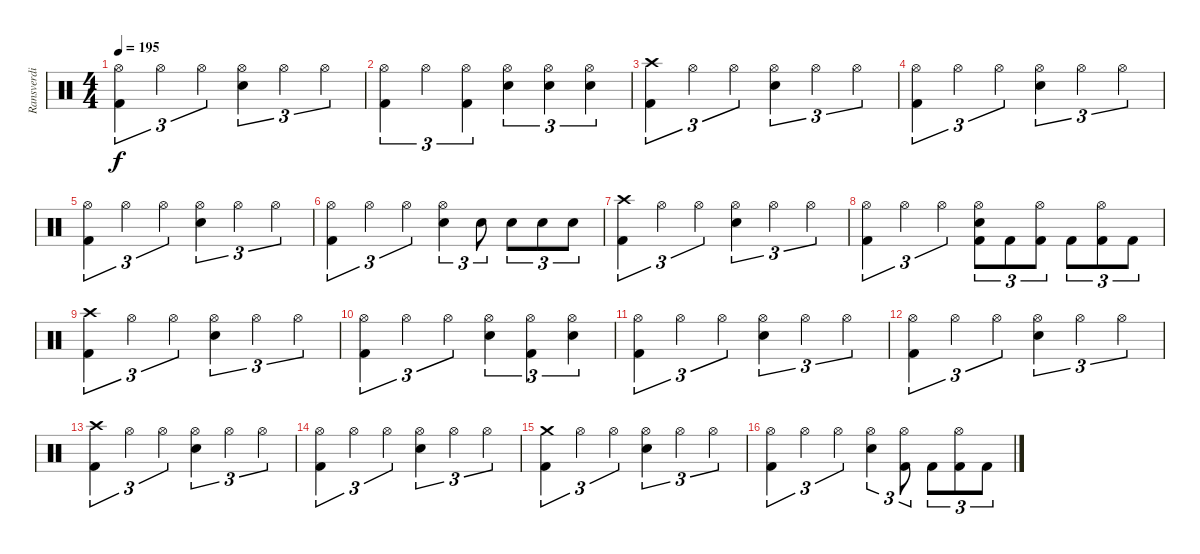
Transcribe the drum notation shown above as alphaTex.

\track ("Ransverdi" "Ransverdi") {instrument percussion}
\staff {score}
\articulation defaults
\ts (4 4)
\tempo 195
\clef neutral
\ks c
("Hi-Hat (open)" "Kick (hit) 2").4{tu (3 2) dy f} "Hi-Hat (open)".4{tu (3 2)} "Hi-Hat (open)".4{tu (3 2)} ("Hi-Hat (open)" "Snare (hit) 2").4{tu (3 2)} "Hi-Hat (open)".4{tu (3 2)} "Hi-Hat (open)".4{tu (3 2)} |
("Hi-Hat (open)" "Kick (hit) 2").4{tu (3 2)} "Hi-Hat (open)".4{tu (3 2)} ("Hi-Hat (open)" "Kick (hit) 2").4{tu (3 2)} ("Hi-Hat (open)" "Snare (hit) 2").4{tu (3 2)} ("Hi-Hat (open)" "Snare (hit) 2").4{tu (3 2)} ("Hi-Hat (open)" "Snare (hit) 2").4{tu (3 2)} |
("Crash high (hit)" "Kick (hit) 2").4{tu (3 2)} "Hi-Hat (open)".4{tu (3 2)} "Hi-Hat (open)".4{tu (3 2)} ("Hi-Hat (open)" "Snare (hit) 2").4{tu (3 2)} "Hi-Hat (open)".4{tu (3 2)} "Hi-Hat (open)".4{tu (3 2)} |
("Hi-Hat (open)" "Kick (hit) 2").4{tu (3 2)} "Hi-Hat (open)".4{tu (3 2)} "Hi-Hat (open)".4{tu (3 2)} ("Hi-Hat (open)" "Snare (hit) 2").4{tu (3 2)} "Hi-Hat (open)".4{tu (3 2)} "Hi-Hat (open)".4{tu (3 2)} |
("Hi-Hat (open)" "Kick (hit) 2").4{tu (3 2)} "Hi-Hat (open)".4{tu (3 2)} "Hi-Hat (open)".4{tu (3 2)} ("Hi-Hat (open)" "Snare (hit) 2").4{tu (3 2)} "Hi-Hat (open)".4{tu (3 2)} "Hi-Hat (open)".4{tu (3 2)} |
("Hi-Hat (open)" "Kick (hit) 2").4{tu (3 2)} "Hi-Hat (open)".4{tu (3 2)} "Hi-Hat (open)".4{tu (3 2)} ("Hi-Hat (open)" "Snare (hit) 2").4{tu (3 2)} "Snare (hit) 2".8{tu (3 2)} "Snare (hit) 2".8{tu (3 2)} "Snare (hit) 2".8{tu (3 2)} "Snare (hit) 2".8{tu (3 2)} |
("Crash high (hit)" "Kick (hit) 2").4{tu (3 2)} "Hi-Hat (open)".4{tu (3 2)} "Hi-Hat (open)".4{tu (3 2)} ("Hi-Hat (open)" "Snare (hit) 2").4{tu (3 2)} "Hi-Hat (open)".4{tu (3 2)} "Hi-Hat (open)".4{tu (3 2)} |
("Hi-Hat (open)" "Kick (hit) 2").4{tu (3 2)} "Hi-Hat (open)".4{tu (3 2)} "Hi-Hat (open)".4{tu (3 2)} ("Hi-Hat (open)" "Snare (hit) 2" "Kick (hit) 2").8{tu (3 2)} "Kick (hit) 2".8{tu (3 2)} ("Hi-Hat (open)" "Kick (hit) 2").8{tu (3 2)} "Kick (hit) 2".8{tu (3 2)} ("Hi-Hat (open)" "Kick (hit) 2").8{tu (3 2)} "Kick (hit) 2".8{tu (3 2)} |
("Crash high (hit)" "Kick (hit) 2").4{tu (3 2)} "Hi-Hat (open)".4{tu (3 2)} "Hi-Hat (open)".4{tu (3 2)} ("Hi-Hat (open)" "Snare (hit) 2").4{tu (3 2)} "Hi-Hat (open)".4{tu (3 2)} "Hi-Hat (open)".4{tu (3 2)} |
("Hi-Hat (open)" "Kick (hit) 2").4{tu (3 2)} "Hi-Hat (open)".4{tu (3 2)} "Hi-Hat (open)".4{tu (3 2)} ("Hi-Hat (open)" "Snare (hit) 2").4{tu (3 2)} ("Hi-Hat (open)" "Kick (hit) 2").4{tu (3 2)} ("Hi-Hat (open)" "Snare (hit) 2").4{tu (3 2)} |
("Hi-Hat (open)" "Kick (hit) 2").4{tu (3 2)} "Hi-Hat (open)".4{tu (3 2)} "Hi-Hat (open)".4{tu (3 2)} ("Hi-Hat (open)" "Snare (hit) 2").4{tu (3 2)} "Hi-Hat (open)".4{tu (3 2)} "Hi-Hat (open)".4{tu (3 2)} |
("Hi-Hat (open)" "Kick (hit) 2").4{tu (3 2)} "Hi-Hat (open)".4{tu (3 2)} "Hi-Hat (open)".4{tu (3 2)} ("Hi-Hat (open)" "Snare (hit) 2").4{tu (3 2)} "Hi-Hat (open)".4{tu (3 2)} "Hi-Hat (open)".4{tu (3 2)} |
("Crash high (hit)" "Kick (hit) 2").4{tu (3 2)} "Hi-Hat (open)".4{tu (3 2)} "Hi-Hat (open)".4{tu (3 2)} ("Hi-Hat (open)" "Snare (hit) 2").4{tu (3 2)} "Hi-Hat (open)".4{tu (3 2)} "Hi-Hat (open)".4{tu (3 2)} |
("Hi-Hat (open)" "Kick (hit) 2").4{tu (3 2)} "Hi-Hat (open)".4{tu (3 2)} "Hi-Hat (open)".4{tu (3 2)} ("Hi-Hat (open)" "Snare (hit) 2").4{tu (3 2)} "Hi-Hat (open)".4{tu (3 2)} "Hi-Hat (open)".4{tu (3 2)} |
("Crash medium (hit)" "Kick (hit) 2").4{tu (3 2)} "Hi-Hat (open)".4{tu (3 2)} "Hi-Hat (open)".4{tu (3 2)} ("Hi-Hat (open)" "Snare (hit) 2").4{tu (3 2)} "Hi-Hat (open)".4{tu (3 2)} "Hi-Hat (open)".4{tu (3 2)} |
("Hi-Hat (open)" "Kick (hit) 2").4{tu (3 2)} "Hi-Hat (open)".4{tu (3 2)} "Hi-Hat (open)".4{tu (3 2)} ("Hi-Hat (open)" "Snare (hit) 2").4{tu (3 2)} ("Hi-Hat (open)" "Kick (hit) 2").8{tu (3 2)} "Kick (hit) 2".8{tu (3 2)} ("Hi-Hat (open)" "Kick (hit) 2").8{tu (3 2)} "Kick (hit) 2".8{tu (3 2)}
